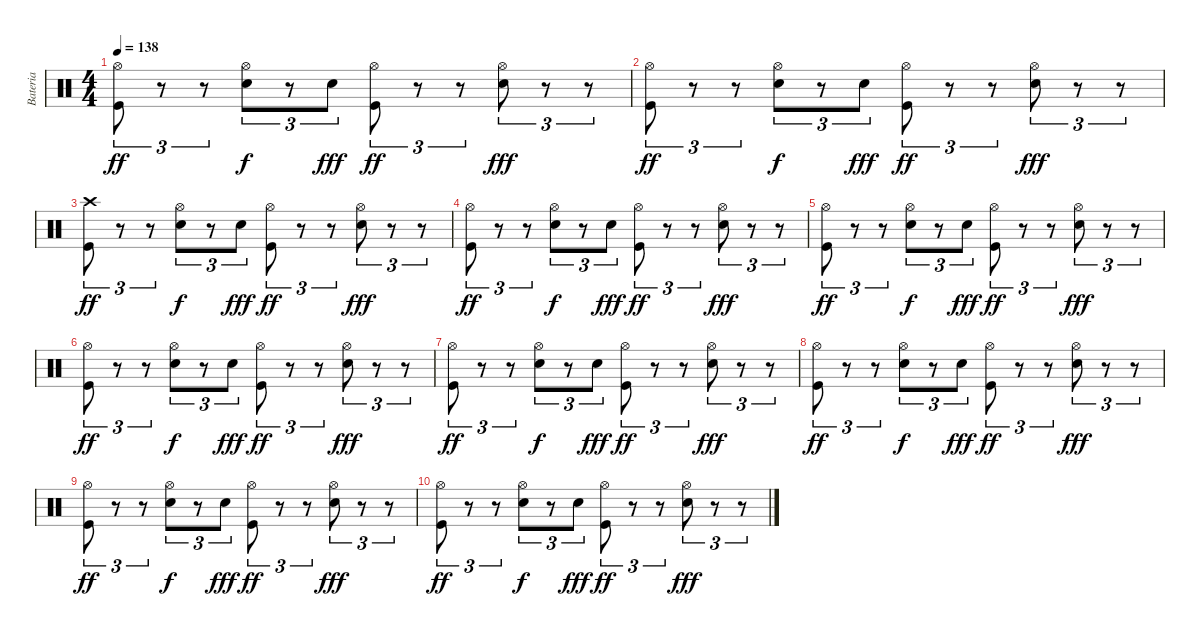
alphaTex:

\track ("Bateria" "Bateria") {instrument percussion}
\staff {score}
\articulation defaults
\ts (4 4)
\tempo 138
\clef neutral
\ks c
("Kick (hit)" "Hi-Hat (open)").8{tu (3 2) dy ff} r.8{tu (3 2)} r.8{tu (3 2)} ("Electric Snare (hit)" "Hi-Hat (open)").8{tu (3 2) dy f} r.8{tu (3 2)} "Electric Snare (hit)".8{tu (3 2) dy fff} ("Kick (hit)" "Hi-Hat (open)").8{tu (3 2) dy ff} r.8{tu (3 2)} r.8{tu (3 2)} ("Electric Snare (hit)" "Hi-Hat (open)").8{tu (3 2) dy fff} r.8{tu (3 2)} r.8{tu (3 2)} |
("Kick (hit)" "Hi-Hat (open)").8{tu (3 2) dy ff} r.8{tu (3 2)} r.8{tu (3 2)} ("Electric Snare (hit)" "Hi-Hat (open)").8{tu (3 2) dy f} r.8{tu (3 2)} "Electric Snare (hit)".8{tu (3 2) dy fff} ("Kick (hit)" "Hi-Hat (open)").8{tu (3 2) dy ff} r.8{tu (3 2)} r.8{tu (3 2)} ("Electric Snare (hit)" "Hi-Hat (open)").8{tu (3 2) dy fff} r.8{tu (3 2)} r.8{tu (3 2)} |
("Kick (hit)" "Crash high (hit)").8{tu (3 2) dy ff volume 7} r.8{tu (3 2)} r.8{tu (3 2)} ("Electric Snare (hit)" "Hi-Hat (open)").8{tu (3 2) dy f} r.8{tu (3 2)} "Electric Snare (hit)".8{tu (3 2) dy fff} ("Kick (hit)" "Hi-Hat (open)").8{tu (3 2) dy ff} r.8{tu (3 2)} r.8{tu (3 2)} ("Electric Snare (hit)" "Hi-Hat (open)").8{tu (3 2) dy fff} r.8{tu (3 2)} r.8{tu (3 2)} |
("Kick (hit)" "Hi-Hat (open)").8{tu (3 2) dy ff} r.8{tu (3 2)} r.8{tu (3 2)} ("Electric Snare (hit)" "Hi-Hat (open)").8{tu (3 2) dy f} r.8{tu (3 2)} "Electric Snare (hit)".8{tu (3 2) dy fff} ("Kick (hit)" "Hi-Hat (open)").8{tu (3 2) dy ff} r.8{tu (3 2)} r.8{tu (3 2)} ("Electric Snare (hit)" "Hi-Hat (open)").8{tu (3 2) dy fff} r.8{tu (3 2)} r.8{tu (3 2)} |
("Kick (hit)" "Hi-Hat (open)").8{tu (3 2) dy ff volume 5} r.8{tu (3 2)} r.8{tu (3 2)} ("Electric Snare (hit)" "Hi-Hat (open)").8{tu (3 2) dy f} r.8{tu (3 2)} "Electric Snare (hit)".8{tu (3 2) dy fff} ("Kick (hit)" "Hi-Hat (open)").8{tu (3 2) dy ff} r.8{tu (3 2)} r.8{tu (3 2)} ("Electric Snare (hit)" "Hi-Hat (open)").8{tu (3 2) dy fff} r.8{tu (3 2)} r.8{tu (3 2)} |
("Kick (hit)" "Hi-Hat (open)").8{tu (3 2) dy ff} r.8{tu (3 2)} r.8{tu (3 2)} ("Electric Snare (hit)" "Hi-Hat (open)").8{tu (3 2) dy f} r.8{tu (3 2)} "Electric Snare (hit)".8{tu (3 2) dy fff} ("Kick (hit)" "Hi-Hat (open)").8{tu (3 2) dy ff} r.8{tu (3 2)} r.8{tu (3 2)} ("Electric Snare (hit)" "Hi-Hat (open)").8{tu (3 2) dy fff} r.8{tu (3 2)} r.8{tu (3 2)} |
("Kick (hit)" "Hi-Hat (open)").8{tu (3 2) dy ff volume 2} r.8{tu (3 2)} r.8{tu (3 2)} ("Electric Snare (hit)" "Hi-Hat (open)").8{tu (3 2) dy f} r.8{tu (3 2)} "Electric Snare (hit)".8{tu (3 2) dy fff} ("Kick (hit)" "Hi-Hat (open)").8{tu (3 2) dy ff} r.8{tu (3 2)} r.8{tu (3 2)} ("Electric Snare (hit)" "Hi-Hat (open)").8{tu (3 2) dy fff} r.8{tu (3 2)} r.8{tu (3 2)} |
("Kick (hit)" "Hi-Hat (open)").8{tu (3 2) dy ff} r.8{tu (3 2)} r.8{tu (3 2)} ("Electric Snare (hit)" "Hi-Hat (open)").8{tu (3 2) dy f} r.8{tu (3 2)} "Electric Snare (hit)".8{tu (3 2) dy fff} ("Kick (hit)" "Hi-Hat (open)").8{tu (3 2) dy ff} r.8{tu (3 2)} r.8{tu (3 2)} ("Electric Snare (hit)" "Hi-Hat (open)").8{tu (3 2) dy fff} r.8{tu (3 2)} r.8{tu (3 2)} |
("Kick (hit)" "Hi-Hat (open)").8{tu (3 2) dy ff volume 0} r.8{tu (3 2)} r.8{tu (3 2)} ("Electric Snare (hit)" "Hi-Hat (open)").8{tu (3 2) dy f} r.8{tu (3 2)} "Electric Snare (hit)".8{tu (3 2) dy fff} ("Kick (hit)" "Hi-Hat (open)").8{tu (3 2) dy ff} r.8{tu (3 2)} r.8{tu (3 2)} ("Electric Snare (hit)" "Hi-Hat (open)").8{tu (3 2) dy fff} r.8{tu (3 2)} r.8{tu (3 2)} |
("Kick (hit)" "Hi-Hat (open)").8{tu (3 2) dy ff} r.8{tu (3 2)} r.8{tu (3 2)} ("Electric Snare (hit)" "Hi-Hat (open)").8{tu (3 2) dy f} r.8{tu (3 2)} "Electric Snare (hit)".8{tu (3 2) dy fff} ("Kick (hit)" "Hi-Hat (open)").8{tu (3 2) dy ff} r.8{tu (3 2)} r.8{tu (3 2)} ("Electric Snare (hit)" "Hi-Hat (open)").8{tu (3 2) dy fff} r.8{tu (3 2)} r.8{tu (3 2)}
